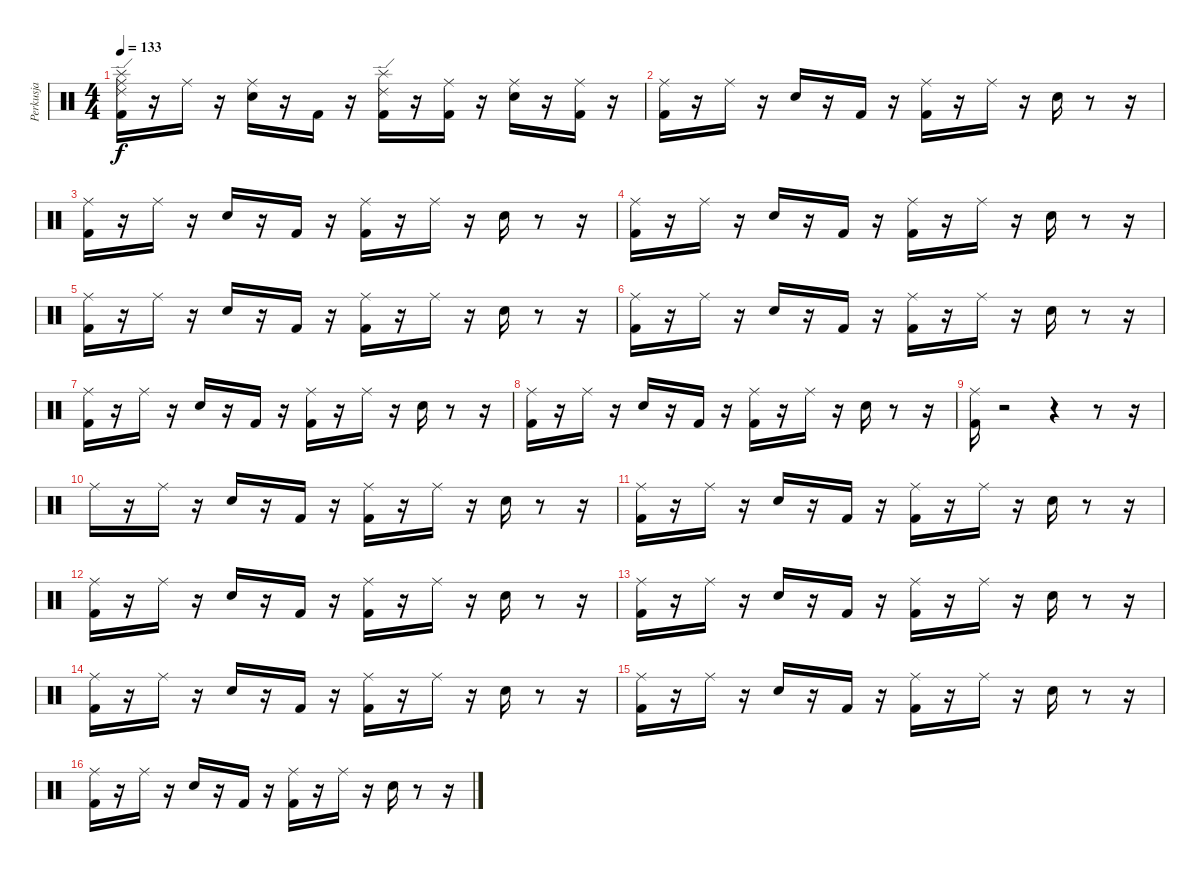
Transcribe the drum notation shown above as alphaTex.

\track ("Perkusja" "Perkusja") {instrument percussion}
\staff {score}
\articulation defaults
\ts (4 4)
\tempo 133
\clef neutral
\ks c
("Ride (middle)" "Ride (edge) 2" "Splash (hit)" "Kick (hit) 2").16{dy f} r.16 "Ride (middle)".16 r.16 ("Ride (middle)" "Snare (hit) 2").16 r.16 "Kick (hit) 2".16 r.16 ("Ride (edge) 2" "Splash (hit)" "Kick (hit) 2").16 r.16 ("Kick (hit) 2" "Ride (middle)").16 r.16 ("Ride (middle)" "Snare (hit) 2").16 r.16 ("Kick (hit) 2" "Ride (middle)").16 r.16 |
("Ride (middle)" "Kick (hit) 2").16 r.16 "Ride (middle)".16 r.16 "Snare (hit) 2".16 r.16 "Kick (hit) 2".16 r.16 ("Ride (middle)" "Kick (hit) 2").16 r.16 "Ride (middle)".16 r.16 "Snare (hit) 2".16 r.8 r.16 |
("Kick (hit) 2" "Ride (middle)").16 r.16 "Ride (middle)".16 r.16 "Snare (hit) 2".16 r.16 "Kick (hit) 2".16 r.16 ("Ride (middle)" "Kick (hit) 2").16 r.16 "Ride (middle)".16 r.16 "Snare (hit) 2".16 r.8 r.16 |
("Ride (middle)" "Kick (hit) 2").16 r.16 "Ride (middle)".16 r.16 "Snare (hit) 2".16 r.16 "Kick (hit) 2".16 r.16 ("Ride (middle)" "Kick (hit) 2").16 r.16 "Ride (middle)".16 r.16 "Snare (hit) 2".16 r.8 r.16 |
("Kick (hit) 2" "Ride (middle)").16 r.16 "Ride (middle)".16 r.16 "Snare (hit) 2".16 r.16 "Kick (hit) 2".16 r.16 ("Ride (middle)" "Kick (hit) 2").16 r.16 "Ride (middle)".16 r.16 "Snare (hit) 2".16 r.8 r.16 |
("Ride (middle)" "Kick (hit) 2").16 r.16 "Ride (middle)".16 r.16 "Snare (hit) 2".16 r.16 "Kick (hit) 2".16 r.16 ("Ride (middle)" "Kick (hit) 2").16 r.16 "Ride (middle)".16 r.16 "Snare (hit) 2".16 r.8 r.16 |
("Kick (hit) 2" "Ride (middle)").16 r.16 "Ride (middle)".16 r.16 "Snare (hit) 2".16 r.16 "Kick (hit) 2".16 r.16 ("Ride (middle)" "Kick (hit) 2").16 r.16 "Ride (middle)".16 r.16 "Snare (hit) 2".16 r.8 r.16 |
("Ride (middle)" "Kick (hit) 2").16 r.16 "Ride (middle)".16 r.16 "Snare (hit) 2".16 r.16 "Kick (hit) 2".16 r.16 ("Ride (middle)" "Kick (hit) 2").16 r.16 "Ride (middle)".16 r.16 "Snare (hit) 2".16 r.8 r.16 |
("Kick (hit) 2" "Ride (middle)").16 r.2 r.4 r.8 r.16 |
"Ride (middle)".16 r.16 "Ride (middle)".16 r.16 "Snare (hit) 2".16 r.16 "Kick (hit) 2".16 r.16 ("Ride (middle)" "Kick (hit) 2").16 r.16 "Ride (middle)".16 r.16 "Snare (hit) 2".16 r.8 r.16 |
("Ride (middle)" "Kick (hit) 2").16 r.16 "Ride (middle)".16 r.16 "Snare (hit) 2".16 r.16 "Kick (hit) 2".16 r.16 ("Ride (middle)" "Kick (hit) 2").16 r.16 "Ride (middle)".16 r.16 "Snare (hit) 2".16 r.8 r.16 |
("Kick (hit) 2" "Ride (middle)").16 r.16 "Ride (middle)".16 r.16 "Snare (hit) 2".16 r.16 "Kick (hit) 2".16 r.16 ("Ride (middle)" "Kick (hit) 2").16 r.16 "Ride (middle)".16 r.16 "Snare (hit) 2".16 r.8 r.16 |
("Ride (middle)" "Kick (hit) 2").16 r.16 "Ride (middle)".16 r.16 "Snare (hit) 2".16 r.16 "Kick (hit) 2".16 r.16 ("Ride (middle)" "Kick (hit) 2").16 r.16 "Ride (middle)".16 r.16 "Snare (hit) 2".16 r.8 r.16 |
("Kick (hit) 2" "Ride (middle)").16 r.16 "Ride (middle)".16 r.16 "Snare (hit) 2".16 r.16 "Kick (hit) 2".16 r.16 ("Ride (middle)" "Kick (hit) 2").16 r.16 "Ride (middle)".16 r.16 "Snare (hit) 2".16 r.8 r.16 |
("Ride (middle)" "Kick (hit) 2").16 r.16 "Ride (middle)".16 r.16 "Snare (hit) 2".16 r.16 "Kick (hit) 2".16 r.16 ("Ride (middle)" "Kick (hit) 2").16 r.16 "Ride (middle)".16 r.16 "Snare (hit) 2".16 r.8 r.16 |
("Kick (hit) 2" "Ride (middle)").16 r.16 "Ride (middle)".16 r.16 "Snare (hit) 2".16 r.16 "Kick (hit) 2".16 r.16 ("Ride (middle)" "Kick (hit) 2").16 r.16 "Ride (middle)".16 r.16 "Snare (hit) 2".16 r.8 r.16
